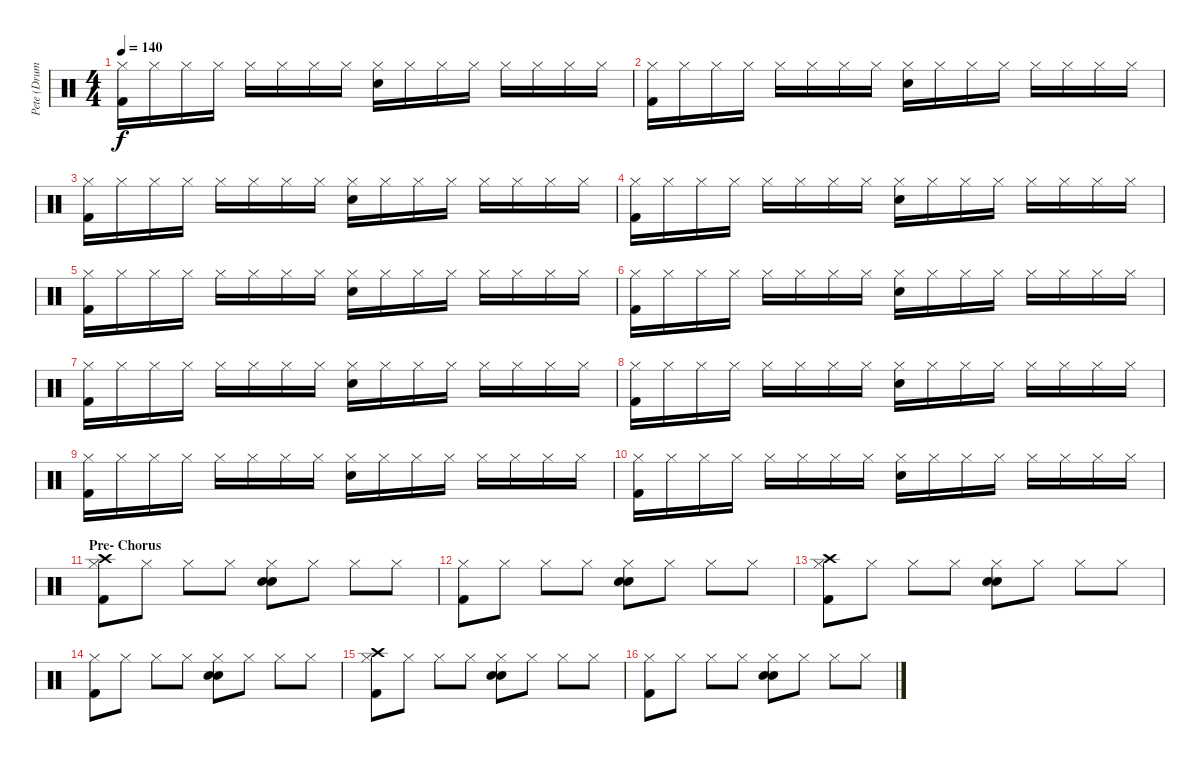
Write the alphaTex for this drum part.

\track ("Pete (Drums)" "Pete (Drum") {instrument percussion}
\staff {score}
\articulation defaults
\ts (4 4)
\tempo 140
\clef neutral
\ks c
("Hi-Hat (closed)" "Kick (hit) 2").16{dy f} "Hi-Hat (closed)".16 "Hi-Hat (closed)".16 "Hi-Hat (closed)".16 "Hi-Hat (closed)".16 "Hi-Hat (closed)".16 "Hi-Hat (closed)".16 "Hi-Hat (closed)".16 ("Hi-Hat (closed)" "Snare (hit) 2").16 "Hi-Hat (closed)".16 "Hi-Hat (closed)".16 "Hi-Hat (closed)".16 "Hi-Hat (closed)".16 "Hi-Hat (closed)".16 "Hi-Hat (closed)".16 "Hi-Hat (closed)".16 |
("Hi-Hat (closed)" "Kick (hit) 2").16 "Hi-Hat (closed)".16 "Hi-Hat (closed)".16 "Hi-Hat (closed)".16 "Hi-Hat (closed)".16 "Hi-Hat (closed)".16 "Hi-Hat (closed)".16 "Hi-Hat (closed)".16 ("Hi-Hat (closed)" "Snare (hit) 2").16 "Hi-Hat (closed)".16 "Hi-Hat (closed)".16 "Hi-Hat (closed)".16 "Hi-Hat (closed)".16 "Hi-Hat (closed)".16 "Hi-Hat (closed)".16 "Hi-Hat (closed)".16 |
("Hi-Hat (closed)" "Kick (hit) 2").16 "Hi-Hat (closed)".16 "Hi-Hat (closed)".16 "Hi-Hat (closed)".16 "Hi-Hat (closed)".16 "Hi-Hat (closed)".16 "Hi-Hat (closed)".16 "Hi-Hat (closed)".16 ("Hi-Hat (closed)" "Snare (hit) 2").16 "Hi-Hat (closed)".16 "Hi-Hat (closed)".16 "Hi-Hat (closed)".16 "Hi-Hat (closed)".16 "Hi-Hat (closed)".16 "Hi-Hat (closed)".16 "Hi-Hat (closed)".16 |
("Hi-Hat (closed)" "Kick (hit) 2").16 "Hi-Hat (closed)".16 "Hi-Hat (closed)".16 "Hi-Hat (closed)".16 "Hi-Hat (closed)".16 "Hi-Hat (closed)".16 "Hi-Hat (closed)".16 "Hi-Hat (closed)".16 ("Hi-Hat (closed)" "Snare (hit) 2").16 "Hi-Hat (closed)".16 "Hi-Hat (closed)".16 "Hi-Hat (closed)".16 "Hi-Hat (closed)".16 "Hi-Hat (closed)".16 "Hi-Hat (closed)".16 "Hi-Hat (closed)".16 |
("Hi-Hat (closed)" "Kick (hit) 2").16 "Hi-Hat (closed)".16 "Hi-Hat (closed)".16 "Hi-Hat (closed)".16 "Hi-Hat (closed)".16 "Hi-Hat (closed)".16 "Hi-Hat (closed)".16 "Hi-Hat (closed)".16 ("Hi-Hat (closed)" "Snare (hit) 2").16 "Hi-Hat (closed)".16 "Hi-Hat (closed)".16 "Hi-Hat (closed)".16 "Hi-Hat (closed)".16 "Hi-Hat (closed)".16 "Hi-Hat (closed)".16 "Hi-Hat (closed)".16 |
("Hi-Hat (closed)" "Kick (hit) 2").16 "Hi-Hat (closed)".16 "Hi-Hat (closed)".16 "Hi-Hat (closed)".16 "Hi-Hat (closed)".16 "Hi-Hat (closed)".16 "Hi-Hat (closed)".16 "Hi-Hat (closed)".16 ("Hi-Hat (closed)" "Snare (hit) 2").16 "Hi-Hat (closed)".16 "Hi-Hat (closed)".16 "Hi-Hat (closed)".16 "Hi-Hat (closed)".16 "Hi-Hat (closed)".16 "Hi-Hat (closed)".16 "Hi-Hat (closed)".16 |
("Hi-Hat (closed)" "Kick (hit) 2").16 "Hi-Hat (closed)".16 "Hi-Hat (closed)".16 "Hi-Hat (closed)".16 "Hi-Hat (closed)".16 "Hi-Hat (closed)".16 "Hi-Hat (closed)".16 "Hi-Hat (closed)".16 ("Hi-Hat (closed)" "Snare (hit) 2").16 "Hi-Hat (closed)".16 "Hi-Hat (closed)".16 "Hi-Hat (closed)".16 "Hi-Hat (closed)".16 "Hi-Hat (closed)".16 "Hi-Hat (closed)".16 "Hi-Hat (closed)".16 |
("Hi-Hat (closed)" "Kick (hit) 2").16 "Hi-Hat (closed)".16 "Hi-Hat (closed)".16 "Hi-Hat (closed)".16 "Hi-Hat (closed)".16 "Hi-Hat (closed)".16 "Hi-Hat (closed)".16 "Hi-Hat (closed)".16 ("Hi-Hat (closed)" "Snare (hit) 2").16 "Hi-Hat (closed)".16 "Hi-Hat (closed)".16 "Hi-Hat (closed)".16 "Hi-Hat (closed)".16 "Hi-Hat (closed)".16 "Hi-Hat (closed)".16 "Hi-Hat (closed)".16 |
("Hi-Hat (closed)" "Kick (hit) 2").16 "Hi-Hat (closed)".16 "Hi-Hat (closed)".16 "Hi-Hat (closed)".16 "Hi-Hat (closed)".16 "Hi-Hat (closed)".16 "Hi-Hat (closed)".16 "Hi-Hat (closed)".16 ("Hi-Hat (closed)" "Snare (hit) 2").16 "Hi-Hat (closed)".16 "Hi-Hat (closed)".16 "Hi-Hat (closed)".16 "Hi-Hat (closed)".16 "Hi-Hat (closed)".16 "Hi-Hat (closed)".16 "Hi-Hat (closed)".16 |
("Hi-Hat (closed)" "Kick (hit) 2").16 "Hi-Hat (closed)".16 "Hi-Hat (closed)".16 "Hi-Hat (closed)".16 "Hi-Hat (closed)".16 "Hi-Hat (closed)".16 "Hi-Hat (closed)".16 "Hi-Hat (closed)".16 ("Hi-Hat (closed)" "Snare (hit) 2").16 "Hi-Hat (closed)".16 "Hi-Hat (closed)".16 "Hi-Hat (closed)".16 "Hi-Hat (closed)".16 "Hi-Hat (closed)".16 "Hi-Hat (closed)".16 "Hi-Hat (closed)".16 |
\section ("" "Pre- Chorus")
("Hi-Hat (closed)" "Kick (hit) 2" "Crash high (hit)").8 "Hi-Hat (closed)".8 "Hi-Hat (closed)".8 "Hi-Hat (closed)".8 ("Hi-Hat (closed)" "Snare (hit) 2" "Snare (hit) 2").8 "Hi-Hat (closed)".8 "Hi-Hat (closed)".8 "Hi-Hat (closed)".8 |
("Hi-Hat (closed)" "Kick (hit) 2").8 "Hi-Hat (closed)".8 "Hi-Hat (closed)".8 "Hi-Hat (closed)".8 ("Hi-Hat (closed)" "Snare (hit) 2" "Snare (hit) 2").8 "Hi-Hat (closed)".8 "Hi-Hat (closed)".8 "Hi-Hat (closed)".8 |
("Hi-Hat (closed)" "Kick (hit) 2" "Crash high (hit)").8 "Hi-Hat (closed)".8 "Hi-Hat (closed)".8 "Hi-Hat (closed)".8 ("Hi-Hat (closed)" "Snare (hit) 2" "Snare (hit) 2").8 "Hi-Hat (closed)".8 "Hi-Hat (closed)".8 "Hi-Hat (closed)".8 |
("Hi-Hat (closed)" "Kick (hit) 2").8 "Hi-Hat (closed)".8 "Hi-Hat (closed)".8 "Hi-Hat (closed)".8 ("Hi-Hat (closed)" "Snare (hit) 2" "Snare (hit) 2").8 "Hi-Hat (closed)".8 "Hi-Hat (closed)".8 "Hi-Hat (closed)".8 |
("Hi-Hat (closed)" "Kick (hit) 2" "Crash high (hit)").8 "Hi-Hat (closed)".8 "Hi-Hat (closed)".8 "Hi-Hat (closed)".8 ("Hi-Hat (closed)" "Snare (hit) 2" "Snare (hit) 2").8 "Hi-Hat (closed)".8 "Hi-Hat (closed)".8 "Hi-Hat (closed)".8 |
("Hi-Hat (closed)" "Kick (hit) 2").8 "Hi-Hat (closed)".8 "Hi-Hat (closed)".8 "Hi-Hat (closed)".8 ("Hi-Hat (closed)" "Snare (hit) 2" "Snare (hit) 2").8 "Hi-Hat (closed)".8 "Hi-Hat (closed)".8 "Hi-Hat (closed)".8
